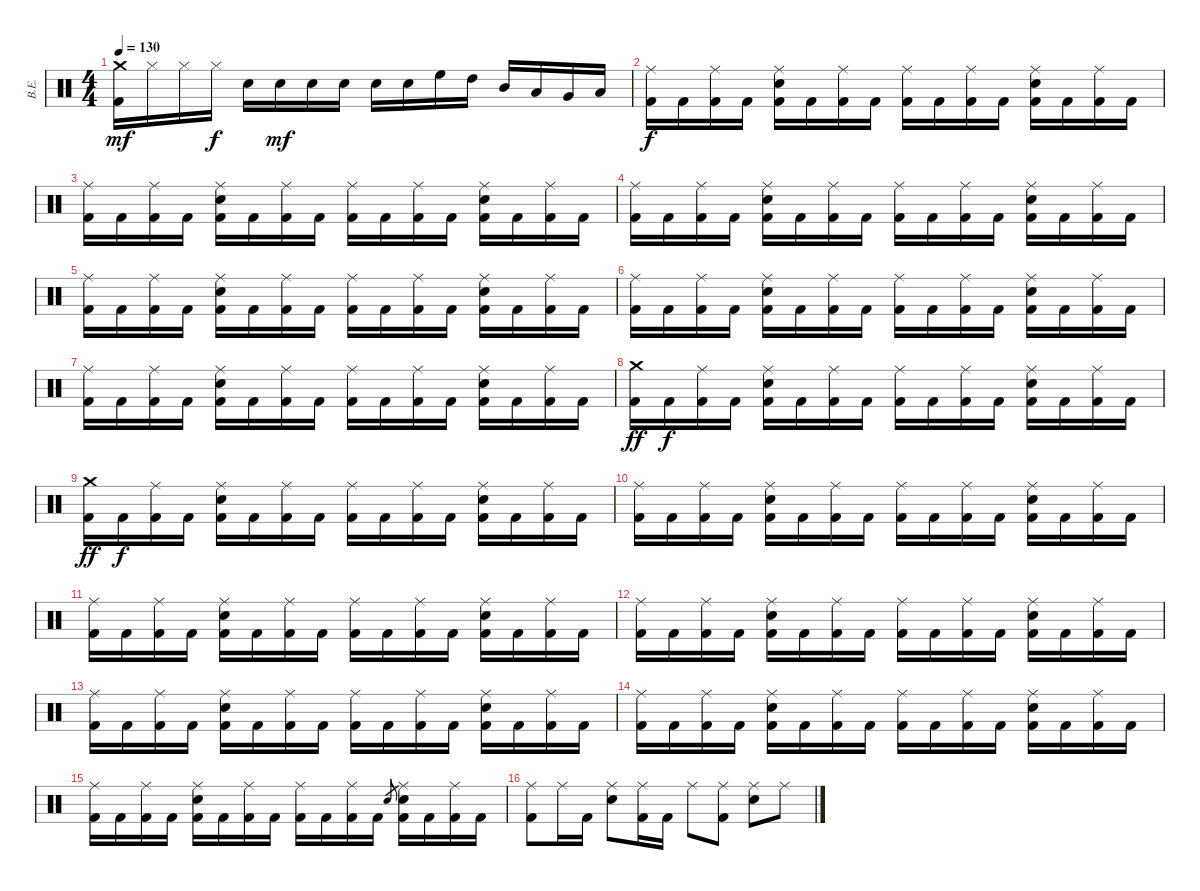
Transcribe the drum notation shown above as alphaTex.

\track ("В.Е." "В.Е.") {instrument percussion}
\staff {score}
\articulation defaults
\ts (4 4)
\tempo 130
\clef neutral
\ks c
("Crash medium (hit)" "Kick (hit) 2").16{dy mf} "Hi-Hat (closed)".16 "Hi-Hat (closed)".16 "Hi-Hat (closed)".16{dy f} "Electric Snare (hit)".16 "Electric Snare (hit)".16{dy mf} "Electric Snare (hit)".16 "Electric Snare (hit)".16 "Electric Snare (hit)".16 "Electric Snare (hit)".16 "High Floor Tom (hit)".16 "High Tom (hit)".16 "Mid Tom (hit)".16 "Low Tom (hit)".16 "Very Low Tom (hit)".16 "Low Floor Tom (hit)".16 |
("Ride (middle)" "Kick (hit) 2").16{dy f} "Kick (hit) 2".16 ("Ride (middle)" "Kick (hit) 2").16 "Kick (hit) 2".16 ("Ride (middle)" "Kick (hit) 2" "Electric Snare (hit)").16 "Kick (hit) 2".16 ("Ride (middle)" "Kick (hit) 2").16 "Kick (hit) 2".16 ("Ride (middle)" "Kick (hit) 2").16 "Kick (hit) 2".16 ("Ride (middle)" "Kick (hit) 2").16 "Kick (hit) 2".16 ("Ride (middle)" "Kick (hit) 2" "Electric Snare (hit)").16 "Kick (hit) 2".16 ("Ride (middle)" "Kick (hit) 2").16 "Kick (hit) 2".16 |
("Ride (middle)" "Kick (hit) 2").16 "Kick (hit) 2".16 ("Ride (middle)" "Kick (hit) 2").16 "Kick (hit) 2".16 ("Ride (middle)" "Kick (hit) 2" "Electric Snare (hit)").16 "Kick (hit) 2".16 ("Ride (middle)" "Kick (hit) 2").16 "Kick (hit) 2".16 ("Ride (middle)" "Kick (hit) 2").16 "Kick (hit) 2".16 ("Ride (middle)" "Kick (hit) 2").16 "Kick (hit) 2".16 ("Ride (middle)" "Kick (hit) 2" "Electric Snare (hit)").16 "Kick (hit) 2".16 ("Ride (middle)" "Kick (hit) 2").16 "Kick (hit) 2".16 |
("Ride (middle)" "Kick (hit) 2").16 "Kick (hit) 2".16 ("Ride (middle)" "Kick (hit) 2").16 "Kick (hit) 2".16 ("Ride (middle)" "Kick (hit) 2" "Electric Snare (hit)").16 "Kick (hit) 2".16 ("Ride (middle)" "Kick (hit) 2").16 "Kick (hit) 2".16 ("Ride (middle)" "Kick (hit) 2").16 "Kick (hit) 2".16 ("Ride (middle)" "Kick (hit) 2").16 "Kick (hit) 2".16 ("Ride (middle)" "Kick (hit) 2" "Electric Snare (hit)").16 "Kick (hit) 2".16 ("Ride (middle)" "Kick (hit) 2").16 "Kick (hit) 2".16 |
("Ride (middle)" "Kick (hit) 2").16 "Kick (hit) 2".16 ("Ride (middle)" "Kick (hit) 2").16 "Kick (hit) 2".16 ("Ride (middle)" "Kick (hit) 2" "Electric Snare (hit)").16 "Kick (hit) 2".16 ("Ride (middle)" "Kick (hit) 2").16 "Kick (hit) 2".16 ("Ride (middle)" "Kick (hit) 2").16 "Kick (hit) 2".16 ("Ride (middle)" "Kick (hit) 2").16 "Kick (hit) 2".16 ("Ride (middle)" "Kick (hit) 2" "Electric Snare (hit)").16 "Kick (hit) 2".16 ("Ride (middle)" "Kick (hit) 2").16 "Kick (hit) 2".16 |
("Ride (middle)" "Kick (hit) 2").16 "Kick (hit) 2".16 ("Ride (middle)" "Kick (hit) 2").16 "Kick (hit) 2".16 ("Ride (middle)" "Kick (hit) 2" "Electric Snare (hit)").16 "Kick (hit) 2".16 ("Ride (middle)" "Kick (hit) 2").16 "Kick (hit) 2".16 ("Ride (middle)" "Kick (hit) 2").16 "Kick (hit) 2".16 ("Ride (middle)" "Kick (hit) 2").16 "Kick (hit) 2".16 ("Ride (middle)" "Kick (hit) 2" "Electric Snare (hit)").16 "Kick (hit) 2".16 ("Ride (middle)" "Kick (hit) 2").16 "Kick (hit) 2".16 |
("Ride (middle)" "Kick (hit) 2").16 "Kick (hit) 2".16 ("Ride (middle)" "Kick (hit) 2").16 "Kick (hit) 2".16 ("Ride (middle)" "Kick (hit) 2" "Electric Snare (hit)").16 "Kick (hit) 2".16 ("Ride (middle)" "Kick (hit) 2").16 "Kick (hit) 2".16 ("Ride (middle)" "Kick (hit) 2").16 "Kick (hit) 2".16 ("Ride (middle)" "Kick (hit) 2").16 "Kick (hit) 2".16 ("Ride (middle)" "Kick (hit) 2" "Electric Snare (hit)").16 "Kick (hit) 2".16 ("Ride (middle)" "Kick (hit) 2").16 "Kick (hit) 2".16 |
("Crash medium (hit)" "Kick (hit) 2").16{dy ff} "Kick (hit) 2".16{dy f} ("Ride (middle)" "Kick (hit) 2").16 "Kick (hit) 2".16 ("Ride (middle)" "Kick (hit) 2" "Electric Snare (hit)").16 "Kick (hit) 2".16 ("Ride (middle)" "Kick (hit) 2").16 "Kick (hit) 2".16 ("Ride (middle)" "Kick (hit) 2").16 "Kick (hit) 2".16 ("Ride (middle)" "Kick (hit) 2").16 "Kick (hit) 2".16 ("Ride (middle)" "Kick (hit) 2" "Electric Snare (hit)").16 "Kick (hit) 2".16 ("Ride (middle)" "Kick (hit) 2").16 "Kick (hit) 2".16 |
("Crash medium (hit)" "Kick (hit) 2").16{dy ff} "Kick (hit) 2".16{dy f} ("Ride (middle)" "Kick (hit) 2").16 "Kick (hit) 2".16 ("Ride (middle)" "Kick (hit) 2" "Electric Snare (hit)").16 "Kick (hit) 2".16 ("Ride (middle)" "Kick (hit) 2").16 "Kick (hit) 2".16 ("Ride (middle)" "Kick (hit) 2").16 "Kick (hit) 2".16 ("Ride (middle)" "Kick (hit) 2").16 "Kick (hit) 2".16 ("Ride (middle)" "Kick (hit) 2" "Electric Snare (hit)").16 "Kick (hit) 2".16 ("Ride (middle)" "Kick (hit) 2").16 "Kick (hit) 2".16 |
("Ride (middle)" "Kick (hit) 2").16 "Kick (hit) 2".16 ("Ride (middle)" "Kick (hit) 2").16 "Kick (hit) 2".16 ("Ride (middle)" "Kick (hit) 2" "Electric Snare (hit)").16 "Kick (hit) 2".16 ("Ride (middle)" "Kick (hit) 2").16 "Kick (hit) 2".16 ("Ride (middle)" "Kick (hit) 2").16 "Kick (hit) 2".16 ("Ride (middle)" "Kick (hit) 2").16 "Kick (hit) 2".16 ("Ride (middle)" "Kick (hit) 2" "Electric Snare (hit)").16 "Kick (hit) 2".16 ("Ride (middle)" "Kick (hit) 2").16 "Kick (hit) 2".16 |
("Ride (middle)" "Kick (hit) 2").16 "Kick (hit) 2".16 ("Ride (middle)" "Kick (hit) 2").16 "Kick (hit) 2".16 ("Ride (middle)" "Kick (hit) 2" "Electric Snare (hit)").16 "Kick (hit) 2".16 ("Ride (middle)" "Kick (hit) 2").16 "Kick (hit) 2".16 ("Ride (middle)" "Kick (hit) 2").16 "Kick (hit) 2".16 ("Ride (middle)" "Kick (hit) 2").16 "Kick (hit) 2".16 ("Ride (middle)" "Kick (hit) 2" "Electric Snare (hit)").16 "Kick (hit) 2".16 ("Ride (middle)" "Kick (hit) 2").16 "Kick (hit) 2".16 |
("Ride (middle)" "Kick (hit) 2").16 "Kick (hit) 2".16 ("Ride (middle)" "Kick (hit) 2").16 "Kick (hit) 2".16 ("Ride (middle)" "Kick (hit) 2" "Electric Snare (hit)").16 "Kick (hit) 2".16 ("Ride (middle)" "Kick (hit) 2").16 "Kick (hit) 2".16 ("Ride (middle)" "Kick (hit) 2").16 "Kick (hit) 2".16 ("Ride (middle)" "Kick (hit) 2").16 "Kick (hit) 2".16 ("Ride (middle)" "Kick (hit) 2" "Electric Snare (hit)").16 "Kick (hit) 2".16 ("Ride (middle)" "Kick (hit) 2").16 "Kick (hit) 2".16 |
("Ride (middle)" "Kick (hit) 2").16 "Kick (hit) 2".16 ("Ride (middle)" "Kick (hit) 2").16 "Kick (hit) 2".16 ("Ride (middle)" "Kick (hit) 2" "Electric Snare (hit)").16 "Kick (hit) 2".16 ("Ride (middle)" "Kick (hit) 2").16 "Kick (hit) 2".16 ("Ride (middle)" "Kick (hit) 2").16 "Kick (hit) 2".16 ("Ride (middle)" "Kick (hit) 2").16 "Kick (hit) 2".16 ("Ride (middle)" "Kick (hit) 2" "Electric Snare (hit)").16 "Kick (hit) 2".16 ("Ride (middle)" "Kick (hit) 2").16 "Kick (hit) 2".16 |
("Ride (middle)" "Kick (hit) 2").16 "Kick (hit) 2".16 ("Ride (middle)" "Kick (hit) 2").16 "Kick (hit) 2".16 ("Ride (middle)" "Kick (hit) 2" "Electric Snare (hit)").16 "Kick (hit) 2".16 ("Ride (middle)" "Kick (hit) 2").16 "Kick (hit) 2".16 ("Ride (middle)" "Kick (hit) 2").16 "Kick (hit) 2".16 ("Ride (middle)" "Kick (hit) 2").16 "Kick (hit) 2".16 ("Ride (middle)" "Kick (hit) 2" "Electric Snare (hit)").16 "Kick (hit) 2".16 ("Ride (middle)" "Kick (hit) 2").16 "Kick (hit) 2".16 |
("Ride (middle)" "Kick (hit) 2").16 "Kick (hit) 2".16 ("Ride (middle)" "Kick (hit) 2").16 "Kick (hit) 2".16 ("Ride (middle)" "Kick (hit) 2" "Electric Snare (hit)").16 "Kick (hit) 2".16 ("Ride (middle)" "Kick (hit) 2").16 "Kick (hit) 2".16 ("Ride (middle)" "Kick (hit) 2").16 "Kick (hit) 2".16 ("Ride (middle)" "Kick (hit) 2").16 "Kick (hit) 2".16 "Electric Snare (hit)".8{gr} ("Ride (middle)" "Kick (hit) 2" "Electric Snare (hit)").16 "Kick (hit) 2".16 ("Ride (middle)" "Kick (hit) 2").16 "Kick (hit) 2".16 |
("Kick (hit) 2" "Ride (middle)").8 "Ride (middle)".16 "Kick (hit) 2".16 ("Electric Snare (hit)" "Ride (middle)").8 ("Kick (hit) 2" "Ride (middle)").16 "Kick (hit) 2".16 "Ride (middle)".8 ("Kick (hit) 2" "Ride (middle)").8 ("Electric Snare (hit)" "Ride (middle)").8 "Ride (middle)".8
